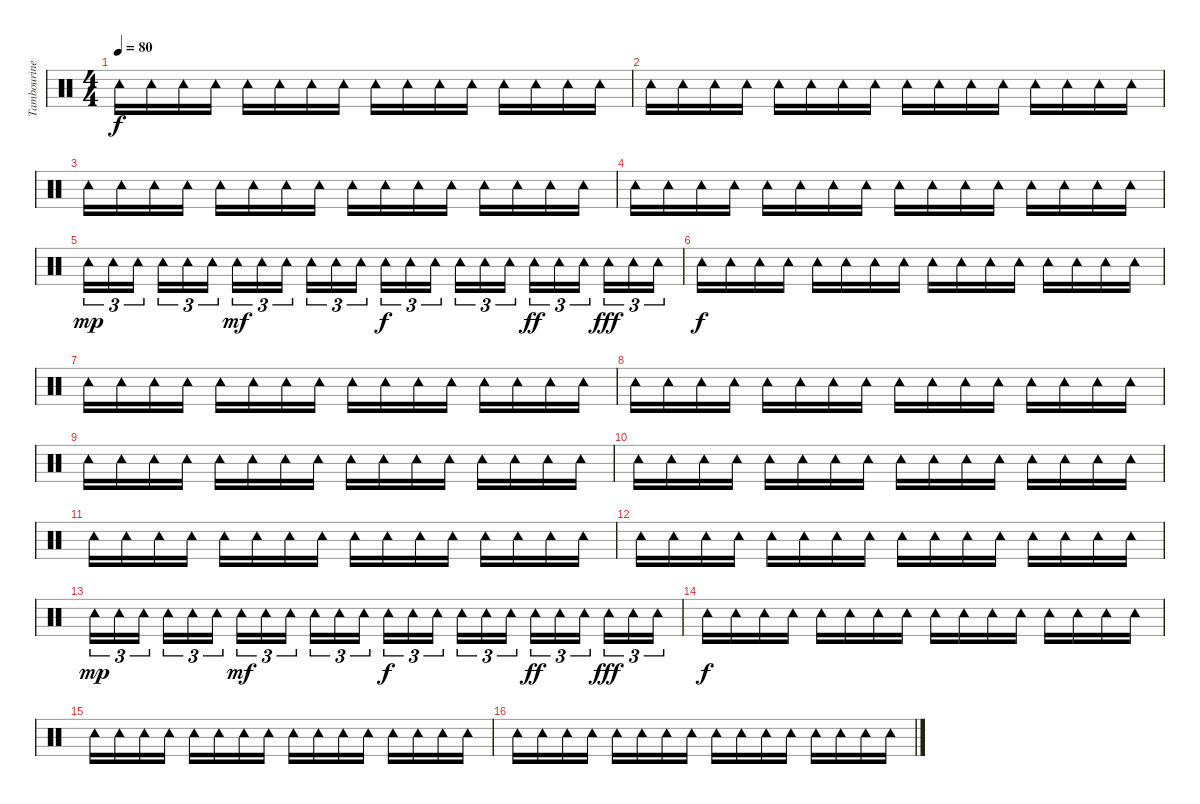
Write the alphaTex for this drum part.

\track ("Tambourine" "Tambourine") {instrument percussion}
\staff {score}
\articulation defaults
\ts (4 4)
\tempo 80
\clef neutral
\ks c "Tambourine (hit)".16{dy f} "Tambourine (hit)".16 "Tambourine (hit)".16 "Tambourine (hit)".16 "Tambourine (hit)".16 "Tambourine (hit)".16 "Tambourine (hit)".16 "Tambourine (hit)".16 "Tambourine (hit)".16 "Tambourine (hit)".16 "Tambourine (hit)".16 "Tambourine (hit)".16 "Tambourine (hit)".16 "Tambourine (hit)".16 "Tambourine (hit)".16 "Tambourine (hit)".16
|
"Tambourine (hit)".16 "Tambourine (hit)".16 "Tambourine (hit)".16 "Tambourine (hit)".16 "Tambourine (hit)".16 "Tambourine (hit)".16 "Tambourine (hit)".16 "Tambourine (hit)".16 "Tambourine (hit)".16 "Tambourine (hit)".16 "Tambourine (hit)".16 "Tambourine (hit)".16 "Tambourine (hit)".16 "Tambourine (hit)".16 "Tambourine (hit)".16 "Tambourine (hit)".16 |
"Tambourine (hit)".16 "Tambourine (hit)".16 "Tambourine (hit)".16 "Tambourine (hit)".16 "Tambourine (hit)".16 "Tambourine (hit)".16 "Tambourine (hit)".16 "Tambourine (hit)".16 "Tambourine (hit)".16 "Tambourine (hit)".16 "Tambourine (hit)".16 "Tambourine (hit)".16 "Tambourine (hit)".16 "Tambourine (hit)".16 "Tambourine (hit)".16 "Tambourine (hit)".16 |
"Tambourine (hit)".16 "Tambourine (hit)".16 "Tambourine (hit)".16 "Tambourine (hit)".16 "Tambourine (hit)".16 "Tambourine (hit)".16 "Tambourine (hit)".16 "Tambourine (hit)".16 "Tambourine (hit)".16 "Tambourine (hit)".16 "Tambourine (hit)".16 "Tambourine (hit)".16 "Tambourine (hit)".16 "Tambourine (hit)".16 "Tambourine (hit)".16 "Tambourine (hit)".16 |
"Tambourine (hit)".16{tu (3 2) dy mp} "Tambourine (hit)".16{tu (3 2)} "Tambourine (hit)".16{tu (3 2)} "Tambourine (hit)".16{tu (3 2)} "Tambourine (hit)".16{tu (3 2)} "Tambourine (hit)".16{tu (3 2)} "Tambourine (hit)".16{tu (3 2) dy mf} "Tambourine (hit)".16{tu (3 2)} "Tambourine (hit)".16{tu (3 2)} "Tambourine (hit)".16{tu (3 2)} "Tambourine (hit)".16{tu (3 2)} "Tambourine (hit)".16{tu (3 2)} "Tambourine (hit)".16{tu (3 2) dy f} "Tambourine (hit)".16{tu (3 2)} "Tambourine (hit)".16{tu (3 2)} "Tambourine (hit)".16{tu (3 2)} "Tambourine (hit)".16{tu (3 2)} "Tambourine (hit)".16{tu (3 2)} "Tambourine (hit)".16{tu (3 2) dy ff} "Tambourine (hit)".16{tu (3 2)} "Tambourine (hit)".16{tu (3 2)} "Tambourine (hit)".16{tu (3 2) dy fff} "Tambourine (hit)".16{tu (3 2)} "Tambourine (hit)".16{tu (3 2)} |
"Tambourine (hit)".16{dy f} "Tambourine (hit)".16 "Tambourine (hit)".16 "Tambourine (hit)".16 "Tambourine (hit)".16 "Tambourine (hit)".16 "Tambourine (hit)".16 "Tambourine (hit)".16 "Tambourine (hit)".16 "Tambourine (hit)".16 "Tambourine (hit)".16 "Tambourine (hit)".16 "Tambourine (hit)".16 "Tambourine (hit)".16 "Tambourine (hit)".16 "Tambourine (hit)".16 |
"Tambourine (hit)".16 "Tambourine (hit)".16 "Tambourine (hit)".16 "Tambourine (hit)".16 "Tambourine (hit)".16 "Tambourine (hit)".16 "Tambourine (hit)".16 "Tambourine (hit)".16 "Tambourine (hit)".16 "Tambourine (hit)".16 "Tambourine (hit)".16 "Tambourine (hit)".16 "Tambourine (hit)".16 "Tambourine (hit)".16 "Tambourine (hit)".16 "Tambourine (hit)".16 |
"Tambourine (hit)".16 "Tambourine (hit)".16 "Tambourine (hit)".16 "Tambourine (hit)".16 "Tambourine (hit)".16 "Tambourine (hit)".16 "Tambourine (hit)".16 "Tambourine (hit)".16 "Tambourine (hit)".16 "Tambourine (hit)".16 "Tambourine (hit)".16 "Tambourine (hit)".16 "Tambourine (hit)".16 "Tambourine (hit)".16 "Tambourine (hit)".16 "Tambourine (hit)".16 |
"Tambourine (hit)".16 "Tambourine (hit)".16 "Tambourine (hit)".16 "Tambourine (hit)".16 "Tambourine (hit)".16 "Tambourine (hit)".16 "Tambourine (hit)".16 "Tambourine (hit)".16 "Tambourine (hit)".16 "Tambourine (hit)".16 "Tambourine (hit)".16 "Tambourine (hit)".16 "Tambourine (hit)".16 "Tambourine (hit)".16 "Tambourine (hit)".16 "Tambourine (hit)".16 |
"Tambourine (hit)".16 "Tambourine (hit)".16 "Tambourine (hit)".16 "Tambourine (hit)".16 "Tambourine (hit)".16 "Tambourine (hit)".16 "Tambourine (hit)".16 "Tambourine (hit)".16 "Tambourine (hit)".16 "Tambourine (hit)".16 "Tambourine (hit)".16 "Tambourine (hit)".16 "Tambourine (hit)".16 "Tambourine (hit)".16 "Tambourine (hit)".16 "Tambourine (hit)".16 |
"Tambourine (hit)".16 "Tambourine (hit)".16 "Tambourine (hit)".16 "Tambourine (hit)".16 "Tambourine (hit)".16 "Tambourine (hit)".16 "Tambourine (hit)".16 "Tambourine (hit)".16 "Tambourine (hit)".16 "Tambourine (hit)".16 "Tambourine (hit)".16 "Tambourine (hit)".16 "Tambourine (hit)".16 "Tambourine (hit)".16 "Tambourine (hit)".16 "Tambourine (hit)".16 |
"Tambourine (hit)".16 "Tambourine (hit)".16 "Tambourine (hit)".16 "Tambourine (hit)".16 "Tambourine (hit)".16 "Tambourine (hit)".16 "Tambourine (hit)".16 "Tambourine (hit)".16 "Tambourine (hit)".16 "Tambourine (hit)".16 "Tambourine (hit)".16 "Tambourine (hit)".16 "Tambourine (hit)".16 "Tambourine (hit)".16 "Tambourine (hit)".16 "Tambourine (hit)".16 |
"Tambourine (hit)".16{tu (3 2) dy mp} "Tambourine (hit)".16{tu (3 2)} "Tambourine (hit)".16{tu (3 2)} "Tambourine (hit)".16{tu (3 2)} "Tambourine (hit)".16{tu (3 2)} "Tambourine (hit)".16{tu (3 2)} "Tambourine (hit)".16{tu (3 2) dy mf} "Tambourine (hit)".16{tu (3 2)} "Tambourine (hit)".16{tu (3 2)} "Tambourine (hit)".16{tu (3 2)} "Tambourine (hit)".16{tu (3 2)} "Tambourine (hit)".16{tu (3 2)} "Tambourine (hit)".16{tu (3 2) dy f} "Tambourine (hit)".16{tu (3 2)} "Tambourine (hit)".16{tu (3 2)} "Tambourine (hit)".16{tu (3 2)} "Tambourine (hit)".16{tu (3 2)} "Tambourine (hit)".16{tu (3 2)} "Tambourine (hit)".16{tu (3 2) dy ff} "Tambourine (hit)".16{tu (3 2)} "Tambourine (hit)".16{tu (3 2)} "Tambourine (hit)".16{tu (3 2) dy fff} "Tambourine (hit)".16{tu (3 2)} "Tambourine (hit)".16{tu (3 2)} |
"Tambourine (hit)".16{dy f} "Tambourine (hit)".16 "Tambourine (hit)".16 "Tambourine (hit)".16 "Tambourine (hit)".16 "Tambourine (hit)".16 "Tambourine (hit)".16 "Tambourine (hit)".16 "Tambourine (hit)".16 "Tambourine (hit)".16 "Tambourine (hit)".16 "Tambourine (hit)".16 "Tambourine (hit)".16 "Tambourine (hit)".16 "Tambourine (hit)".16 "Tambourine (hit)".16 |
"Tambourine (hit)".16 "Tambourine (hit)".16 "Tambourine (hit)".16 "Tambourine (hit)".16 "Tambourine (hit)".16 "Tambourine (hit)".16 "Tambourine (hit)".16 "Tambourine (hit)".16 "Tambourine (hit)".16 "Tambourine (hit)".16 "Tambourine (hit)".16 "Tambourine (hit)".16 "Tambourine (hit)".16 "Tambourine (hit)".16 "Tambourine (hit)".16 "Tambourine (hit)".16 |
"Tambourine (hit)".16 "Tambourine (hit)".16 "Tambourine (hit)".16 "Tambourine (hit)".16 "Tambourine (hit)".16 "Tambourine (hit)".16 "Tambourine (hit)".16 "Tambourine (hit)".16 "Tambourine (hit)".16 "Tambourine (hit)".16 "Tambourine (hit)".16 "Tambourine (hit)".16 "Tambourine (hit)".16 "Tambourine (hit)".16 "Tambourine (hit)".16 "Tambourine (hit)".16
